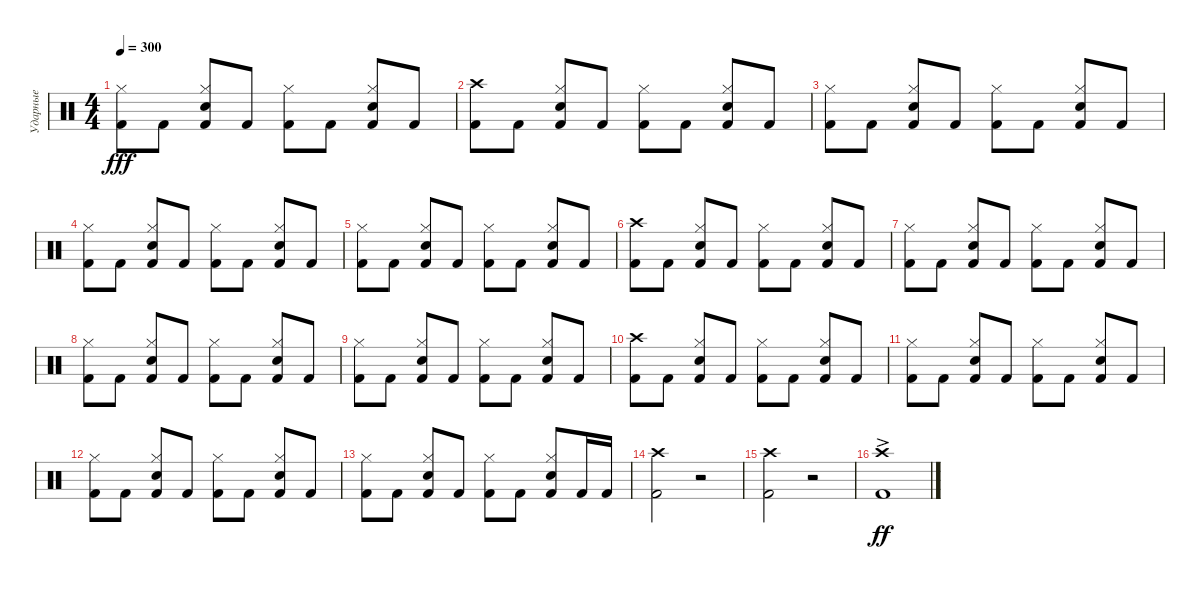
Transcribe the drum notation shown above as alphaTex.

\track ("Ударные" "Ударные") {instrument percussion}
\staff {score}
\articulation defaults
\ts (4 4)
\tempo 300
\clef neutral
\ks c
("Kick (hit) 2" "Hi-Hat (closed)").8{dy fff} "Kick (hit) 2".8 ("Kick (hit) 2" "Snare (hit) 2" "Hi-Hat (closed)").8 "Kick (hit) 2".8 ("Kick (hit) 2" "Hi-Hat (closed)").8 "Kick (hit) 2".8 ("Kick (hit) 2" "Snare (hit) 2" "Hi-Hat (closed)").8 "Kick (hit) 2".8 |
("Kick (hit) 2" "Crash high (hit)").8 "Kick (hit) 2".8 ("Kick (hit) 2" "Snare (hit) 2" "Hi-Hat (closed)").8 "Kick (hit) 2".8 ("Kick (hit) 2" "Hi-Hat (closed)").8 "Kick (hit) 2".8 ("Kick (hit) 2" "Snare (hit) 2" "Hi-Hat (closed)").8 "Kick (hit) 2".8 |
("Kick (hit) 2" "Hi-Hat (closed)").8 "Kick (hit) 2".8 ("Kick (hit) 2" "Snare (hit) 2" "Hi-Hat (closed)").8 "Kick (hit) 2".8 ("Kick (hit) 2" "Hi-Hat (closed)").8 "Kick (hit) 2".8 ("Kick (hit) 2" "Snare (hit) 2" "Hi-Hat (closed)").8 "Kick (hit) 2".8 |
("Kick (hit) 2" "Hi-Hat (closed)").8 "Kick (hit) 2".8 ("Kick (hit) 2" "Snare (hit) 2" "Hi-Hat (closed)").8 "Kick (hit) 2".8 ("Kick (hit) 2" "Hi-Hat (closed)").8 "Kick (hit) 2".8 ("Kick (hit) 2" "Snare (hit) 2" "Hi-Hat (closed)").8 "Kick (hit) 2".8 |
("Kick (hit) 2" "Hi-Hat (closed)").8 "Kick (hit) 2".8 ("Kick (hit) 2" "Snare (hit) 2" "Hi-Hat (closed)").8 "Kick (hit) 2".8 ("Kick (hit) 2" "Hi-Hat (closed)").8 "Kick (hit) 2".8 ("Kick (hit) 2" "Snare (hit) 2" "Hi-Hat (closed)").8 "Kick (hit) 2".8 |
("Kick (hit) 2" "Crash high (hit)").8 "Kick (hit) 2".8 ("Kick (hit) 2" "Snare (hit) 2" "Hi-Hat (closed)").8 "Kick (hit) 2".8 ("Kick (hit) 2" "Hi-Hat (closed)").8 "Kick (hit) 2".8 ("Kick (hit) 2" "Snare (hit) 2" "Hi-Hat (closed)").8 "Kick (hit) 2".8 |
("Kick (hit) 2" "Hi-Hat (closed)").8 "Kick (hit) 2".8 ("Kick (hit) 2" "Snare (hit) 2" "Hi-Hat (closed)").8 "Kick (hit) 2".8 ("Kick (hit) 2" "Hi-Hat (closed)").8 "Kick (hit) 2".8 ("Kick (hit) 2" "Snare (hit) 2" "Hi-Hat (closed)").8 "Kick (hit) 2".8 |
("Kick (hit) 2" "Hi-Hat (closed)").8 "Kick (hit) 2".8 ("Kick (hit) 2" "Snare (hit) 2" "Hi-Hat (closed)").8 "Kick (hit) 2".8 ("Kick (hit) 2" "Hi-Hat (closed)").8 "Kick (hit) 2".8 ("Kick (hit) 2" "Snare (hit) 2" "Hi-Hat (closed)").8 "Kick (hit) 2".8 |
("Kick (hit) 2" "Hi-Hat (closed)").8 "Kick (hit) 2".8 ("Kick (hit) 2" "Snare (hit) 2" "Hi-Hat (closed)").8 "Kick (hit) 2".8 ("Kick (hit) 2" "Hi-Hat (closed)").8 "Kick (hit) 2".8 ("Kick (hit) 2" "Snare (hit) 2" "Hi-Hat (closed)").8 "Kick (hit) 2".8 |
("Kick (hit) 2" "Crash high (hit)").8 "Kick (hit) 2".8 ("Kick (hit) 2" "Snare (hit) 2" "Hi-Hat (closed)").8 "Kick (hit) 2".8 ("Kick (hit) 2" "Hi-Hat (closed)").8 "Kick (hit) 2".8 ("Kick (hit) 2" "Snare (hit) 2" "Hi-Hat (closed)").8 "Kick (hit) 2".8 |
("Kick (hit) 2" "Hi-Hat (closed)").8 "Kick (hit) 2".8 ("Kick (hit) 2" "Snare (hit) 2" "Hi-Hat (closed)").8 "Kick (hit) 2".8 ("Kick (hit) 2" "Hi-Hat (closed)").8 "Kick (hit) 2".8 ("Kick (hit) 2" "Snare (hit) 2" "Hi-Hat (closed)").8 "Kick (hit) 2".8 |
("Kick (hit) 2" "Hi-Hat (closed)").8 "Kick (hit) 2".8 ("Kick (hit) 2" "Snare (hit) 2" "Hi-Hat (closed)").8 "Kick (hit) 2".8 ("Kick (hit) 2" "Hi-Hat (closed)").8 "Kick (hit) 2".8 ("Kick (hit) 2" "Snare (hit) 2" "Hi-Hat (closed)").8 "Kick (hit) 2".8 |
("Kick (hit) 2" "Hi-Hat (closed)").8 "Kick (hit) 2".8 ("Kick (hit) 2" "Snare (hit) 2" "Hi-Hat (closed)").8 "Kick (hit) 2".8 ("Kick (hit) 2" "Hi-Hat (closed)").8 "Kick (hit) 2".8 ("Kick (hit) 2" "Snare (hit) 2" "Hi-Hat (closed)").8 "Kick (hit) 2".16 "Kick (hit) 2".16 |
("Kick (hit) 2" "Crash high (hit)").2 r.2 |
("Kick (hit) 2" "Crash high (hit)").2 r.2 |
("Kick (hit) 2" "Crash high (hit)"{ac}).1{dy ff}
